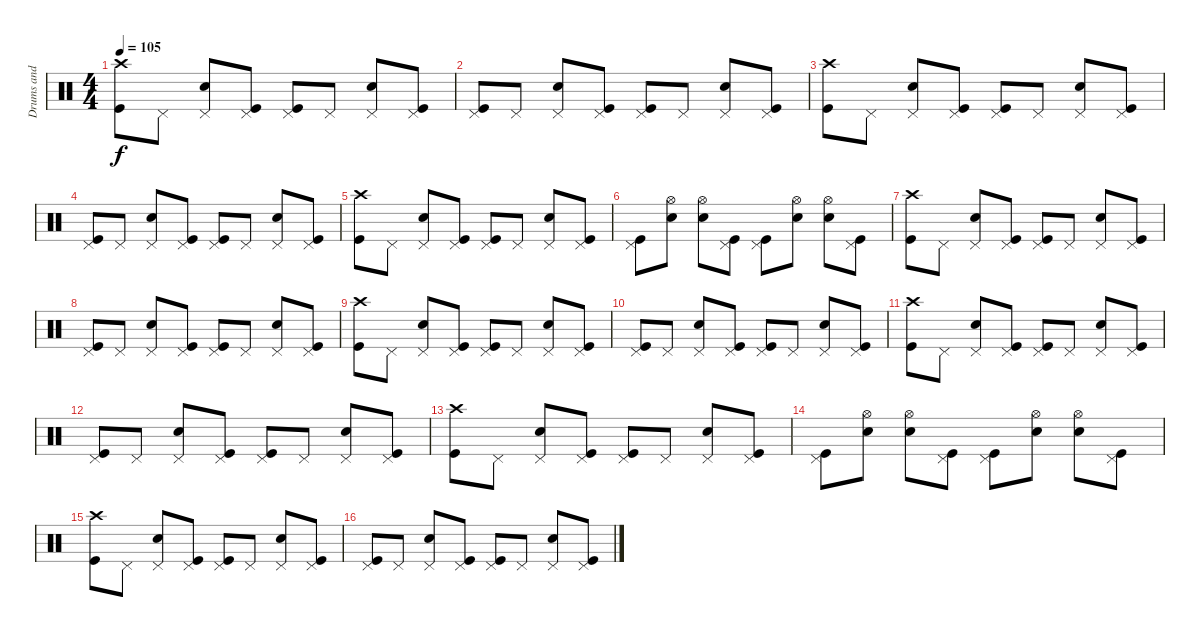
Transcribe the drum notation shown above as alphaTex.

\track ("Drums and loops" "Drums and ") {instrument percussion}
\staff {score}
\articulation defaults
\ts (4 4)
\tempo 105
\clef neutral
\ks c
("Crash high (hit)" "Kick (hit)").8{dy f} "Pedal Hi-Hat (hit)".8 ("Pedal Hi-Hat (hit)" "Electric Snare (hit)").8 ("Pedal Hi-Hat (hit)" "Kick (hit)").8 ("Pedal Hi-Hat (hit)" "Kick (hit)").8 "Pedal Hi-Hat (hit)".8 ("Pedal Hi-Hat (hit)" "Electric Snare (hit)").8 ("Pedal Hi-Hat (hit)" "Kick (hit)").8 |
("Pedal Hi-Hat (hit)" "Kick (hit)").8 "Pedal Hi-Hat (hit)".8 ("Electric Snare (hit)" "Pedal Hi-Hat (hit)").8 ("Pedal Hi-Hat (hit)" "Kick (hit)").8 ("Pedal Hi-Hat (hit)" "Kick (hit)").8 "Pedal Hi-Hat (hit)".8 ("Pedal Hi-Hat (hit)" "Electric Snare (hit)").8 ("Pedal Hi-Hat (hit)" "Kick (hit)").8 |
("Crash high (hit)" "Kick (hit)").8 "Pedal Hi-Hat (hit)".8 ("Pedal Hi-Hat (hit)" "Electric Snare (hit)").8 ("Pedal Hi-Hat (hit)" "Kick (hit)").8 ("Pedal Hi-Hat (hit)" "Kick (hit)").8 "Pedal Hi-Hat (hit)".8 ("Pedal Hi-Hat (hit)" "Electric Snare (hit)").8 ("Pedal Hi-Hat (hit)" "Kick (hit)").8 |
("Pedal Hi-Hat (hit)" "Kick (hit)").8 "Pedal Hi-Hat (hit)".8 ("Electric Snare (hit)" "Pedal Hi-Hat (hit)").8 ("Pedal Hi-Hat (hit)" "Kick (hit)").8 ("Pedal Hi-Hat (hit)" "Kick (hit)").8 "Pedal Hi-Hat (hit)".8 ("Pedal Hi-Hat (hit)" "Electric Snare (hit)").8 ("Pedal Hi-Hat (hit)" "Kick (hit)").8 |
("Crash high (hit)" "Kick (hit)").8 "Pedal Hi-Hat (hit)".8 ("Pedal Hi-Hat (hit)" "Electric Snare (hit)").8 ("Pedal Hi-Hat (hit)" "Kick (hit)").8 ("Pedal Hi-Hat (hit)" "Kick (hit)").8 "Pedal Hi-Hat (hit)".8 ("Pedal Hi-Hat (hit)" "Electric Snare (hit)").8 ("Pedal Hi-Hat (hit)" "Kick (hit)").8 |
("Pedal Hi-Hat (hit)" "Kick (hit)").8 ("Hi-Hat (open)" "Electric Snare (hit)").8 ("Electric Snare (hit)" "Hi-Hat (open)").8 ("Pedal Hi-Hat (hit)" "Kick (hit)").8 ("Pedal Hi-Hat (hit)" "Kick (hit)").8 ("Hi-Hat (open)" "Electric Snare (hit)").8 ("Hi-Hat (open)" "Electric Snare (hit)").8 ("Pedal Hi-Hat (hit)" "Kick (hit)").8 |
("Crash high (hit)" "Kick (hit)").8 "Pedal Hi-Hat (hit)".8 ("Pedal Hi-Hat (hit)" "Electric Snare (hit)").8 ("Pedal Hi-Hat (hit)" "Kick (hit)").8 ("Pedal Hi-Hat (hit)" "Kick (hit)").8 "Pedal Hi-Hat (hit)".8 ("Pedal Hi-Hat (hit)" "Electric Snare (hit)").8 ("Pedal Hi-Hat (hit)" "Kick (hit)").8 |
("Pedal Hi-Hat (hit)" "Kick (hit)").8 "Pedal Hi-Hat (hit)".8 ("Electric Snare (hit)" "Pedal Hi-Hat (hit)").8 ("Pedal Hi-Hat (hit)" "Kick (hit)").8 ("Pedal Hi-Hat (hit)" "Kick (hit)").8 "Pedal Hi-Hat (hit)".8 ("Pedal Hi-Hat (hit)" "Electric Snare (hit)").8 ("Pedal Hi-Hat (hit)" "Kick (hit)").8 |
("Crash high (hit)" "Kick (hit)").8 "Pedal Hi-Hat (hit)".8 ("Pedal Hi-Hat (hit)" "Electric Snare (hit)").8 ("Pedal Hi-Hat (hit)" "Kick (hit)").8 ("Pedal Hi-Hat (hit)" "Kick (hit)").8 "Pedal Hi-Hat (hit)".8 ("Pedal Hi-Hat (hit)" "Electric Snare (hit)").8 ("Pedal Hi-Hat (hit)" "Kick (hit)").8 |
("Pedal Hi-Hat (hit)" "Kick (hit)").8 "Pedal Hi-Hat (hit)".8 ("Electric Snare (hit)" "Pedal Hi-Hat (hit)").8 ("Pedal Hi-Hat (hit)" "Kick (hit)").8 ("Pedal Hi-Hat (hit)" "Kick (hit)").8 "Pedal Hi-Hat (hit)".8 ("Pedal Hi-Hat (hit)" "Electric Snare (hit)").8 ("Pedal Hi-Hat (hit)" "Kick (hit)").8 |
("Crash high (hit)" "Kick (hit)").8 "Pedal Hi-Hat (hit)".8 ("Pedal Hi-Hat (hit)" "Electric Snare (hit)").8 ("Pedal Hi-Hat (hit)" "Kick (hit)").8 ("Pedal Hi-Hat (hit)" "Kick (hit)").8 "Pedal Hi-Hat (hit)".8 ("Pedal Hi-Hat (hit)" "Electric Snare (hit)").8 ("Pedal Hi-Hat (hit)" "Kick (hit)").8 |
("Pedal Hi-Hat (hit)" "Kick (hit)").8 "Pedal Hi-Hat (hit)".8 ("Electric Snare (hit)" "Pedal Hi-Hat (hit)").8 ("Pedal Hi-Hat (hit)" "Kick (hit)").8 ("Pedal Hi-Hat (hit)" "Kick (hit)").8 "Pedal Hi-Hat (hit)".8 ("Pedal Hi-Hat (hit)" "Electric Snare (hit)").8 ("Pedal Hi-Hat (hit)" "Kick (hit)").8 |
("Crash high (hit)" "Kick (hit)").8 "Pedal Hi-Hat (hit)".8 ("Pedal Hi-Hat (hit)" "Electric Snare (hit)").8 ("Pedal Hi-Hat (hit)" "Kick (hit)").8 ("Pedal Hi-Hat (hit)" "Kick (hit)").8 "Pedal Hi-Hat (hit)".8 ("Pedal Hi-Hat (hit)" "Electric Snare (hit)").8 ("Pedal Hi-Hat (hit)" "Kick (hit)").8 |
("Pedal Hi-Hat (hit)" "Kick (hit)").8 ("Hi-Hat (open)" "Electric Snare (hit)").8 ("Electric Snare (hit)" "Hi-Hat (open)").8 ("Pedal Hi-Hat (hit)" "Kick (hit)").8 ("Pedal Hi-Hat (hit)" "Kick (hit)").8 ("Hi-Hat (open)" "Electric Snare (hit)").8 ("Hi-Hat (open)" "Electric Snare (hit)").8 ("Pedal Hi-Hat (hit)" "Kick (hit)").8 |
("Crash high (hit)" "Kick (hit)").8 "Pedal Hi-Hat (hit)".8 ("Pedal Hi-Hat (hit)" "Electric Snare (hit)").8 ("Pedal Hi-Hat (hit)" "Kick (hit)").8 ("Pedal Hi-Hat (hit)" "Kick (hit)").8 "Pedal Hi-Hat (hit)".8 ("Pedal Hi-Hat (hit)" "Electric Snare (hit)").8 ("Pedal Hi-Hat (hit)" "Kick (hit)").8 |
("Pedal Hi-Hat (hit)" "Kick (hit)").8 "Pedal Hi-Hat (hit)".8 ("Electric Snare (hit)" "Pedal Hi-Hat (hit)").8 ("Pedal Hi-Hat (hit)" "Kick (hit)").8 ("Pedal Hi-Hat (hit)" "Kick (hit)").8 "Pedal Hi-Hat (hit)".8 ("Pedal Hi-Hat (hit)" "Electric Snare (hit)").8 ("Pedal Hi-Hat (hit)" "Kick (hit)").8
